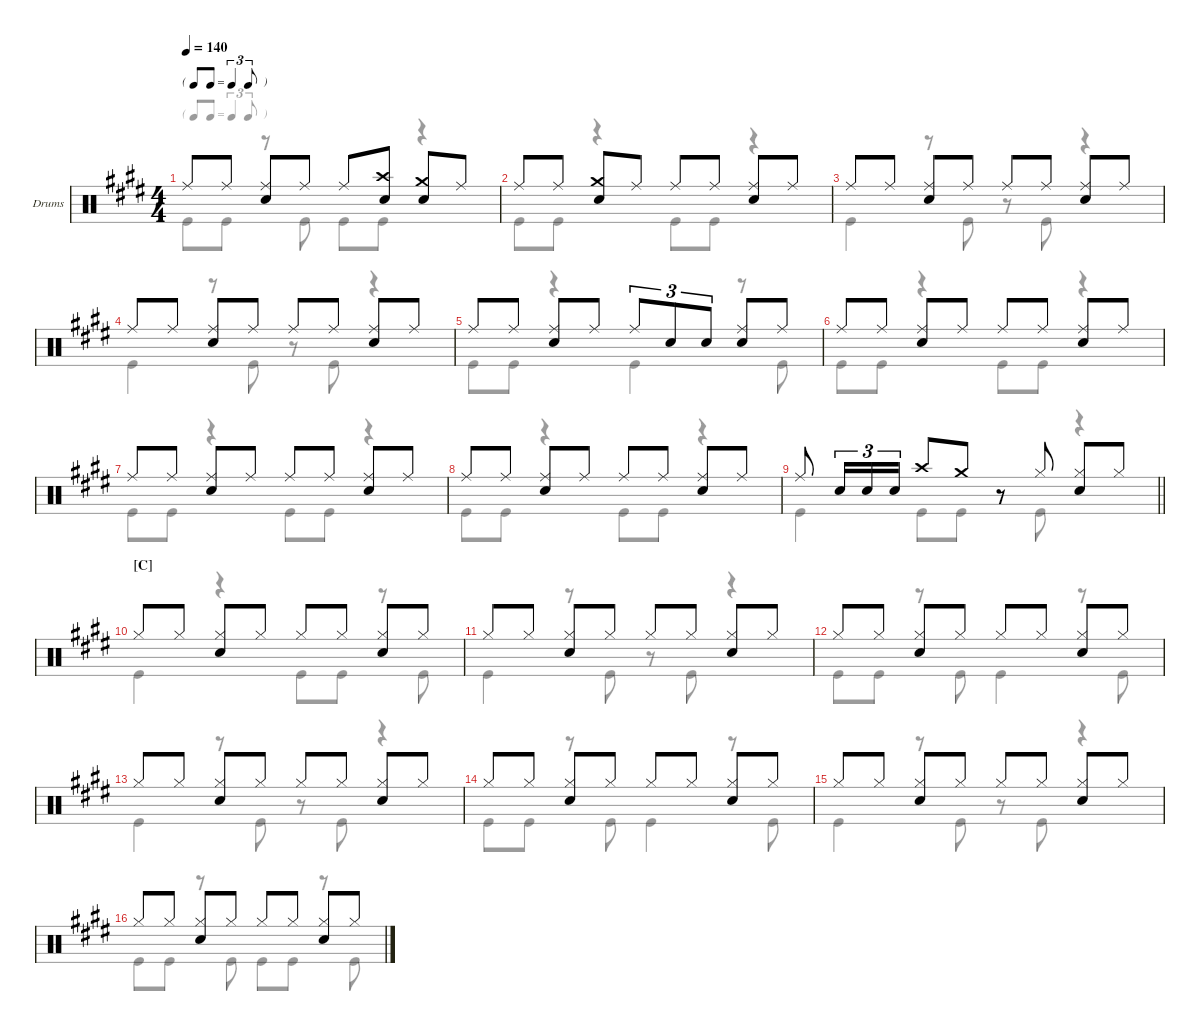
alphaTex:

\hideDynamics
\bracketExtendMode groupsimilarinstruments
\firstSystemTrackNameOrientation horizontal
\otherSystemsTrackNameOrientation horizontal
\track ("Drumkit" "Drums") {instrument percussion}
\staff {score}
\articulation defaults
\voice
\ts (4 4)
\tf triplet8th
\scale
0.305513
\tempo 140
\accidentals auto
\clef neutral
\ottava regular
\simile none
\ks e "Ride (middle)".8{dy f} "Ride (middle)".8
("Ride (middle)" "Snare (hit) 2").8 "Ride (middle)".8 "Ride (middle)".8 ("Crash high (hit)" "Snare (hit) 2").8 ("Crash medium (hit)" "Snare (hit) 2").8 "Ride (middle)".8 |
\scale
0.292845 "Ride (middle)".8 "Ride (middle)".8 ("Crash medium (hit)" "Snare (hit) 2").8 "Ride (middle)".8 "Ride (middle)".8 "Ride (middle)".8 ("Ride (middle)" "Snare (hit) 2").8 "Ride (middle)".8 |
\scale
0.386107 "Ride (middle)".8 "Ride (middle)".8 ("Ride (middle)" "Snare (hit) 2").8 "Ride (middle)".8 "Ride (middle)".8 "Ride (middle)".8 ("Ride (middle)" "Snare (hit) 2").8 "Ride (middle)".8 |
\scale
0.305081 "Ride (middle)".8 "Ride (middle)".8 ("Ride (middle)" "Snare (hit) 2").8 "Ride (middle)".8 "Ride (middle)".8 "Ride (middle)".8 ("Ride (middle)" "Snare (hit) 2").8 "Ride (middle)".8 |
\scale
0.309087 "Ride (middle)".8 "Ride (middle)".8 ("Ride (middle)" "Snare (hit) 2").8 "Ride (middle)".8 "Ride (middle)".8{tu (3 2)} "Snare (hit) 2".8{tu (3 2)} "Snare (hit) 2".8{tu (3 2)} ("Ride (middle)" "Snare (hit) 2").8 "Ride (middle)".8 |
\scale
0.279799 "Ride (middle)".8 "Ride (middle)".8 ("Ride (middle)" "Snare (hit) 2").8 "Ride (middle)".8 "Ride (middle)".8 "Ride (middle)".8 ("Ride (middle)" "Snare (hit) 2").8 "Ride (middle)".8 |
\scale
0.213038 "Ride (middle)".8 "Ride (middle)".8 ("Ride (middle)" "Snare (hit) 2").8 "Ride (middle)".8 "Ride (middle)".8 "Ride (middle)".8 ("Ride (middle)" "Snare (hit) 2").8 "Ride (middle)".8 |
\scale
0.2016 "Ride (middle)".8 "Ride (middle)".8 ("Ride (middle)" "Snare (hit) 2").8 "Ride (middle)".8 "Ride (middle)".8 "Ride (middle)".8 ("Ride (middle)" "Snare (hit) 2").8 "Ride (middle)".8 |
\scale
0.394242
\scale
0.306027
\barLineRight lightlight "Ride (middle)".8 "Snare (hit) 2".16{tu (3 2)} "Snare (hit) 2".16{tu (3 2)} "Snare (hit) 2".16{tu (3 2)} "Crash high (hit)".8 "Crash medium (hit)".8
r.8 "Hi-Hat (closed)".8 ("Hi-Hat (closed)" "Snare (hit) 2").8 "Hi-Hat (closed)".8 |
\section ("C" "")
\scale
0.299279 "Hi-Hat (closed)".8 "Hi-Hat (closed)".8 ("Hi-Hat (closed)" "Snare (hit) 2").8 "Hi-Hat (closed)".8 "Hi-Hat (closed)".8 "Hi-Hat (closed)".8 ("Hi-Hat (closed)" "Snare (hit) 2").8 "Hi-Hat (closed)".8 |
\scale
0.30764 "Hi-Hat (closed)".8 "Hi-Hat (closed)".8 ("Hi-Hat (closed)" "Snare (hit) 2").8 "Hi-Hat (closed)".8 "Hi-Hat (closed)".8 "Hi-Hat (closed)".8 ("Hi-Hat (closed)" "Snare (hit) 2").8 "Hi-Hat (closed)".8 |
\scale
0.399758 "Hi-Hat (closed)".8 "Hi-Hat (closed)".8 ("Hi-Hat (closed)" "Snare (hit) 2").8 "Hi-Hat (closed)".8 "Hi-Hat (closed)".8 "Hi-Hat (closed)".8 ("Hi-Hat (closed)" "Snare (hit) 2").8 "Hi-Hat (closed)".8 |
\scale
0.307129 "Hi-Hat (closed)".8 "Hi-Hat (closed)".8 ("Hi-Hat (closed)" "Snare (hit) 2").8 "Hi-Hat (closed)".8 "Hi-Hat (closed)".8 "Hi-Hat (closed)".8 ("Hi-Hat (closed)" "Snare (hit) 2").8 "Hi-Hat (closed)".8 |
\scale
0.289833 "Hi-Hat (closed)".8 "Hi-Hat (closed)".8 ("Hi-Hat (closed)" "Snare (hit) 2").8 "Hi-Hat (closed)".8 "Hi-Hat (closed)".8 "Hi-Hat (closed)".8 ("Hi-Hat (closed)" "Snare (hit) 2").8 "Hi-Hat (closed)".8 |
\scale
0.412035 "Hi-Hat (closed)".8 "Hi-Hat (closed)".8 ("Hi-Hat (closed)" "Snare (hit) 2").8 "Hi-Hat (closed)".8 "Hi-Hat (closed)".8 "Hi-Hat (closed)".8 ("Hi-Hat (closed)" "Snare (hit) 2").8 "Hi-Hat (closed)".8 |
\scale
0.289617 "Hi-Hat (closed)".8 "Hi-Hat (closed)".8 ("Hi-Hat (closed)" "Snare (hit) 2").8 "Hi-Hat (closed)".8 "Hi-Hat (closed)".8 "Hi-Hat (closed)".8 ("Hi-Hat (closed)" "Snare (hit) 2").8 "Hi-Hat (closed)".8
\voice
\clef neutral
\ottava regular
\simile none
\ks e "Kick (hit)".8{dy mf} "Kick (hit)".8
r.8 "Kick (hit)".8 "Kick (hit)".8 "Kick (hit)".8 r.4 |
"Kick (hit)".8 "Kick (hit)".8 r.4 "Kick (hit)".8 "Kick (hit)".8 r.4 |
"Kick (hit)".4 r.8 "Kick (hit)".8 r.8 "Kick (hit)".8 r.4 |
"Kick (hit)".4 r.8 "Kick (hit)".8 r.8 "Kick (hit)".8 r.4 |
"Kick (hit)".8 "Kick (hit)".8 r.4 "Kick (hit)".4 r.8 "Kick (hit)".8 |
\scale
0.279799 "Kick (hit)".8 "Kick (hit)".8 r.4 "Kick (hit)".8 "Kick (hit)".8 r.4 |
\scale
0.213038 "Kick (hit)".8 "Kick (hit)".8 r.4 "Kick (hit)".8 "Kick (hit)".8 r.4 |
\scale
0.2016 "Kick (hit)".8 "Kick (hit)".8 r.4 "Kick (hit)".8 "Kick (hit)".8 r.4 |
\scale
0.306027
\barLineRight lightlight "Kick (hit)".4 "Kick (hit)".8 "Kick (hit)".8
r.8 "Kick (hit)".8 r.4 |
"Kick (hit)".4 r.4 "Kick (hit)".8 "Kick (hit)".8 r.8 "Kick (hit)".8 |
"Kick (hit)".4 r.8 "Kick (hit)".8 r.8 "Kick (hit)".8 r.4 |
"Kick (hit)".8 "Kick (hit)".8 r.8 "Kick (hit)".8 "Kick (hit)".4 r.8 "Kick (hit)".8 |
"Kick (hit)".4 r.8 "Kick (hit)".8 r.8 "Kick (hit)".8 r.4 |
"Kick (hit)".8 "Kick (hit)".8 r.8 "Kick (hit)".8 "Kick (hit)".4 r.8 "Kick (hit)".8 |
"Kick (hit)".4 r.8 "Kick (hit)".8 r.8 "Kick (hit)".8 r.4 |
"Kick (hit)".8 "Kick (hit)".8 r.8 "Kick (hit)".8 "Kick (hit)".8 "Kick (hit)".8 r.8 "Kick (hit)".8
